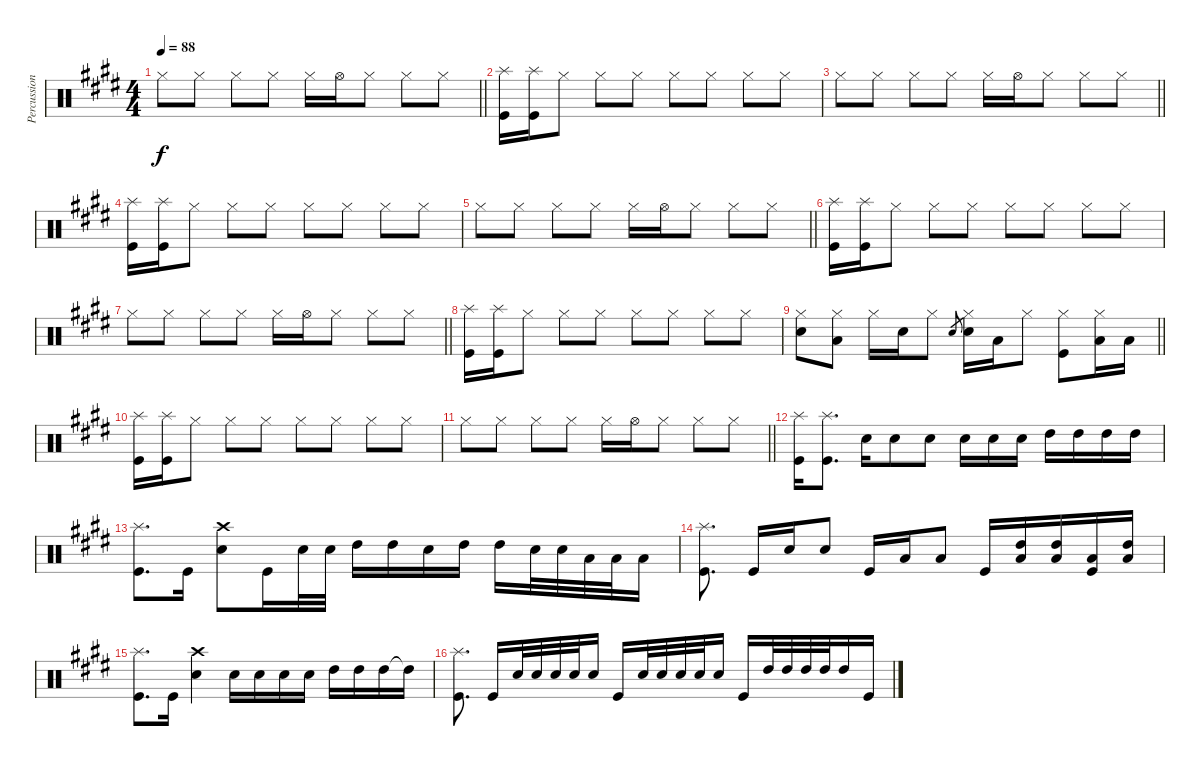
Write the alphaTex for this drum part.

\track ("Percussion" "Percussion") {instrument percussion}
\staff {score}
\articulation defaults
\ts (4 4)
\tempo 88
\clef neutral
\barLineRight lightlight
\ks e "Hi-Hat (closed)".8{dy f} "Hi-Hat (closed)".8 "Hi-Hat (closed)".8 "Hi-Hat (closed)".8 "Hi-Hat (closed)".16 "Hi-Hat (open)".16 "Hi-Hat (closed)".8 "Hi-Hat (closed)".8 "Hi-Hat (closed)".8
|
("Splash (hit)" "Kick (hit)").16 ("Splash (hit)" "Kick (hit)").16 "Hi-Hat (closed)".8 "Hi-Hat (closed)".8 "Hi-Hat (closed)".8 "Hi-Hat (closed)".8 "Hi-Hat (closed)".8 "Hi-Hat (closed)".8 "Hi-Hat (closed)".8 |
\barLineRight lightlight "Hi-Hat (closed)".8 "Hi-Hat (closed)".8 "Hi-Hat (closed)".8 "Hi-Hat (closed)".8 "Hi-Hat (closed)".16 "Hi-Hat (open)".16 "Hi-Hat (closed)".8 "Hi-Hat (closed)".8 "Hi-Hat (closed)".8
|
("Splash (hit)" "Kick (hit)").16 ("Splash (hit)" "Kick (hit)").16 "Hi-Hat (closed)".8 "Hi-Hat (closed)".8 "Hi-Hat (closed)".8 "Hi-Hat (closed)".8 "Hi-Hat (closed)".8 "Hi-Hat (closed)".8 "Hi-Hat (closed)".8 |
\barLineRight lightlight "Hi-Hat (closed)".8 "Hi-Hat (closed)".8 "Hi-Hat (closed)".8 "Hi-Hat (closed)".8 "Hi-Hat (closed)".16 "Hi-Hat (open)".16 "Hi-Hat (closed)".8 "Hi-Hat (closed)".8 "Hi-Hat (closed)".8
|
("Splash (hit)" "Kick (hit)").16 ("Splash (hit)" "Kick (hit)").16 "Hi-Hat (closed)".8 "Hi-Hat (closed)".8 "Hi-Hat (closed)".8 "Hi-Hat (closed)".8 "Hi-Hat (closed)".8 "Hi-Hat (closed)".8 "Hi-Hat (closed)".8 |
\barLineRight lightlight "Hi-Hat (closed)".8 "Hi-Hat (closed)".8 "Hi-Hat (closed)".8 "Hi-Hat (closed)".8 "Hi-Hat (closed)".16 "Hi-Hat (open)".16 "Hi-Hat (closed)".8 "Hi-Hat (closed)".8 "Hi-Hat (closed)".8
|
("Splash (hit)" "Kick (hit)").16 ("Splash (hit)" "Kick (hit)").16 "Hi-Hat (closed)".8 "Hi-Hat (closed)".8 "Hi-Hat (closed)".8 "Hi-Hat (closed)".8 "Hi-Hat (closed)".8 "Hi-Hat (closed)".8 "Hi-Hat (closed)".8 |
\barLineRight lightlight
("Hi-Hat (closed)" "Snare (hit) 2").8 ("Hi-Hat (closed)" "Low Tom (hit)").8 "Hi-Hat (closed)".16 "Snare (hit) 2".16 "Hi-Hat (closed)".8 "Snare (hit) 2".8{gr} ("Hi-Hat (closed)" "Snare (hit) 2").16 "Low Tom (hit)".16 "Hi-Hat (closed)".8 ("Hi-Hat (closed)" "Kick (hit)").8 ("Hi-Hat (closed)" "Low Tom (hit)").16 "Low Tom (hit)".16 |
("Splash (hit)" "Kick (hit)").16 ("Splash (hit)" "Kick (hit)").16 "Hi-Hat (closed)".8 "Hi-Hat (closed)".8 "Hi-Hat (closed)".8 "Hi-Hat (closed)".8 "Hi-Hat (closed)".8 "Hi-Hat (closed)".8 "Hi-Hat (closed)".8 |
\barLineRight lightlight "Hi-Hat (closed)".8 "Hi-Hat (closed)".8 "Hi-Hat (closed)".8 "Hi-Hat (closed)".8 "Hi-Hat (closed)".16 "Hi-Hat (open)".16 "Hi-Hat (closed)".8 "Hi-Hat (closed)".8 "Hi-Hat (closed)".8
|
("Splash (hit)" "Kick (hit)").16 ("Splash (hit)" "Kick (hit)").8{d} "Snare (hit) 2".16 "Snare (hit) 2".8 "Snare (hit) 2".8 "Snare (hit) 2".16 "Snare (hit) 2".16 "Snare (hit) 2".16 "High Tom (hit)".16 "High Tom (hit)".16 "High Tom (hit)".16 "High Tom (hit)".16 |
("Splash (hit)" "Kick (hit)").8{d} "Kick (hit)".16 ("Crash high (hit)" "Snare (hit) 2").8 "Kick (hit)".16 "Snare (hit) 2".32 "Snare (hit) 2".32 "High Tom (hit)".16 "High Tom (hit)".16 "Snare (hit) 2".16 "High Tom (hit)".16 "High Tom (hit)".16 "Snare (hit) 2".32 "Snare (hit) 2".32 "Low Tom (hit)".32 "Low Tom (hit)".32 "Low Tom (hit)".16 |
("Splash (hit)" "Kick (hit)").8{d beam split} "Kick (hit)".16{beam merge} "Snare (hit) 2".16 "Snare (hit) 2".8{beam split} "Kick (hit)".16{beam merge} "Low Tom (hit)".16 "Low Tom (hit)".8{beam split} "Kick (hit)".16{beam merge} ("Low Tom (hit)" "High Tom (hit)").16 ("Low Tom (hit)" "High Tom (hit)").16 ("Low Tom (hit)" "Kick (hit)").16 ("Low Tom (hit)" "High Tom (hit)").16 |
("Splash (hit)" "Kick (hit)").8{d} "Kick (hit)".16 ("Crash high (hit)" "Snare (hit) 2").4 "Snare (hit) 2".16 "Snare (hit) 2".16 "Snare (hit) 2".16 "Snare (hit) 2".16 "High Tom (hit)".16 "High Tom (hit)".16 "High Tom (hit)".16 "High Tom (hit)"{t}.16 |
("Splash (hit)" "Kick (hit)").8{d beam split} "Kick (hit)".16{beam merge} "Snare (hit) 2".32 "Snare (hit) 2".32 "Snare (hit) 2".32 "Snare (hit) 2".32 "Snare (hit) 2".16{beam split} "Kick (hit)".16{beam merge} "Snare (hit) 2".32 "Snare (hit) 2".32{beam merge} "Snare (hit) 2".32 "Snare (hit) 2".32 "Snare (hit) 2".16{beam split} "Kick (hit)".16{beam merge} "High Tom (hit)".32{beam merge} "High Tom (hit)".32{beam merge} "High Tom (hit)".32{beam merge} "High Tom (hit)".32 "High Tom (hit)".16 "Kick (hit)".16
